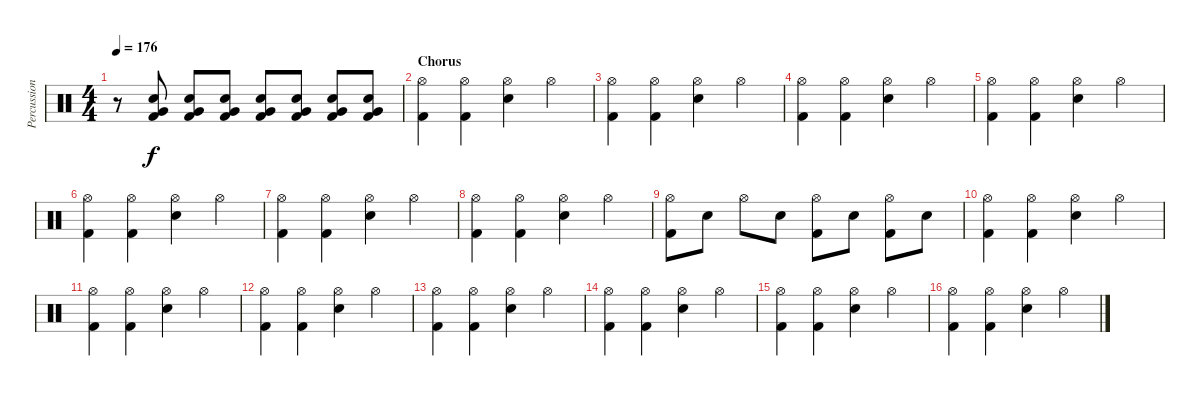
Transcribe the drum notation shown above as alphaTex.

\track ("Percussion" "Percussion") {instrument percussion}
\staff {score}
\articulation defaults
\ts (4 4)
\tempo 176
\clef neutral
\ks c
r.8{dy f volume 6} ("Snare (hit) 2" "Very Low Tom (hit)" "Kick (hit) 2").8{volume 13} ("Snare (hit) 2" "Very Low Tom (hit)" "Kick (hit) 2").8 ("Snare (hit) 2" "Very Low Tom (hit)" "Kick (hit) 2").8 ("Snare (hit) 2" "Very Low Tom (hit)" "Kick (hit) 2").8 ("Snare (hit) 2" "Very Low Tom (hit)" "Kick (hit) 2").8 ("Snare (hit) 2" "Very Low Tom (hit)" "Kick (hit) 2").8 ("Snare (hit) 2" "Very Low Tom (hit)" "Kick (hit) 2").8 |
\section ("" "Chorus")
("Hi-Hat (open)" "Kick (hit) 2").4 ("Hi-Hat (open)" "Kick (hit) 2").4 ("Hi-Hat (open)" "Snare (hit) 2").4 "Hi-Hat (open)".4 |
("Hi-Hat (open)" "Kick (hit) 2").4 ("Hi-Hat (open)" "Kick (hit) 2").4 ("Hi-Hat (open)" "Snare (hit) 2").4 "Hi-Hat (open)".4 |
("Hi-Hat (open)" "Kick (hit) 2").4 ("Hi-Hat (open)" "Kick (hit) 2").4 ("Hi-Hat (open)" "Snare (hit) 2").4 "Hi-Hat (open)".4 |
("Hi-Hat (open)" "Kick (hit) 2").4 ("Hi-Hat (open)" "Kick (hit) 2").4 ("Hi-Hat (open)" "Snare (hit) 2").4 "Hi-Hat (open)".4 |
("Hi-Hat (open)" "Kick (hit) 2").4 ("Hi-Hat (open)" "Kick (hit) 2").4 ("Hi-Hat (open)" "Snare (hit) 2").4 "Hi-Hat (open)".4 |
("Hi-Hat (open)" "Kick (hit) 2").4 ("Hi-Hat (open)" "Kick (hit) 2").4 ("Hi-Hat (open)" "Snare (hit) 2").4 "Hi-Hat (open)".4 |
("Hi-Hat (open)" "Kick (hit) 2").4 ("Hi-Hat (open)" "Kick (hit) 2").4 ("Hi-Hat (open)" "Snare (hit) 2").4 "Hi-Hat (open)".4 |
("Hi-Hat (open)" "Kick (hit) 2").8 "Snare (hit) 2".8 "Hi-Hat (open)".8 "Snare (hit) 2".8 ("Hi-Hat (open)" "Kick (hit) 2").8 "Snare (hit) 2".8 ("Hi-Hat (open)" "Kick (hit) 2").8 "Snare (hit) 2".8 |
("Hi-Hat (open)" "Kick (hit) 2").4 ("Hi-Hat (open)" "Kick (hit) 2").4 ("Hi-Hat (open)" "Snare (hit) 2").4 "Hi-Hat (open)".4 |
("Hi-Hat (open)" "Kick (hit) 2").4 ("Hi-Hat (open)" "Kick (hit) 2").4 ("Hi-Hat (open)" "Snare (hit) 2").4 "Hi-Hat (open)".4 |
("Hi-Hat (open)" "Kick (hit) 2").4 ("Hi-Hat (open)" "Kick (hit) 2").4 ("Hi-Hat (open)" "Snare (hit) 2").4 "Hi-Hat (open)".4 |
("Hi-Hat (open)" "Kick (hit) 2").4 ("Hi-Hat (open)" "Kick (hit) 2").4 ("Hi-Hat (open)" "Snare (hit) 2").4 "Hi-Hat (open)".4 |
("Hi-Hat (open)" "Kick (hit) 2").4 ("Hi-Hat (open)" "Kick (hit) 2").4 ("Hi-Hat (open)" "Snare (hit) 2").4 "Hi-Hat (open)".4 |
("Hi-Hat (open)" "Kick (hit) 2").4 ("Hi-Hat (open)" "Kick (hit) 2").4 ("Hi-Hat (open)" "Snare (hit) 2").4 "Hi-Hat (open)".4 |
("Hi-Hat (open)" "Kick (hit) 2").4 ("Hi-Hat (open)" "Kick (hit) 2").4 ("Hi-Hat (open)" "Snare (hit) 2").4 "Hi-Hat (open)".4
